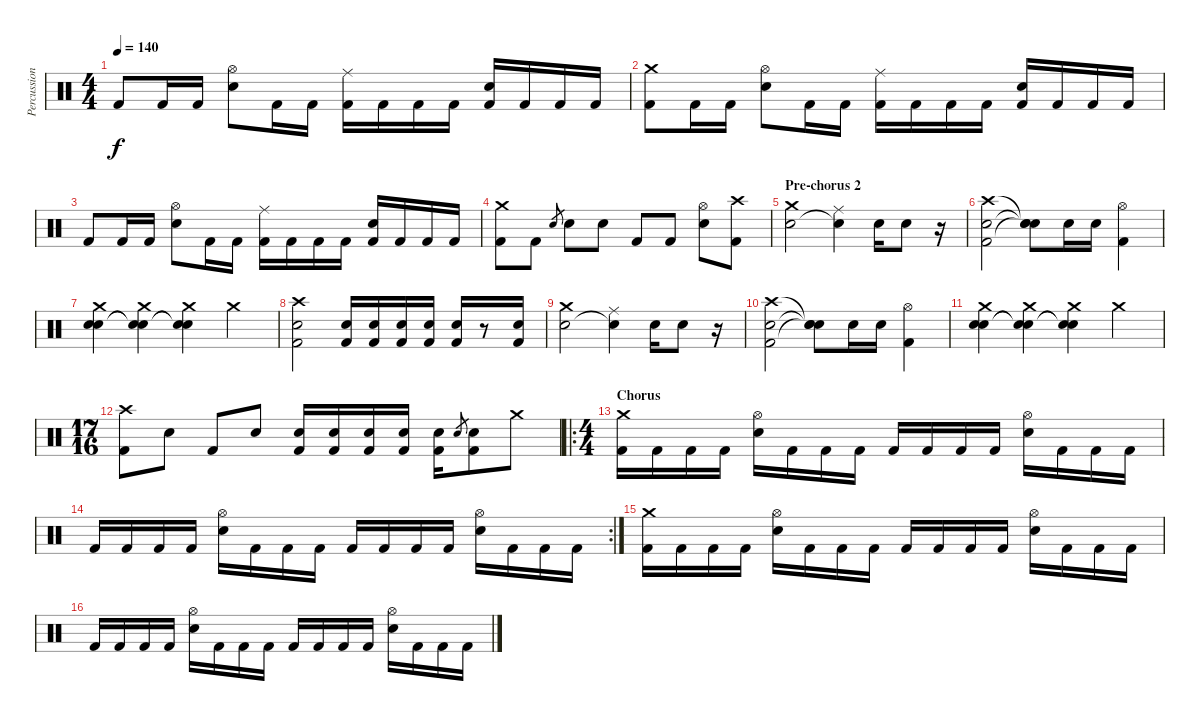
\track ("Percussion" "Percussion") {instrument percussion}
\staff {score}
\articulation defaults
\ts (4 4)
\tempo 140
\clef neutral
\ks c "Kick (hit) 2".8{dy f} "Kick (hit) 2".16 "Kick (hit) 2".16
("Hi-Hat (open)" "Electric Snare (hit)").8 "Kick (hit) 2".16 "Kick (hit) 2".16 ("Ride (middle)" "Kick (hit) 2").16 "Kick (hit) 2".16 "Kick (hit) 2".16 "Kick (hit) 2".16 ("Electric Snare (hit)" "Kick (hit) 2").16 "Kick (hit) 2".16 "Kick (hit) 2".16 "Kick (hit) 2".16 |
("Crash medium (hit)" "Kick (hit) 2").8 "Kick (hit) 2".16 "Kick (hit) 2".16 ("Hi-Hat (open)" "Electric Snare (hit)").8 "Kick (hit) 2".16 "Kick (hit) 2".16 ("Ride (middle)" "Kick (hit) 2").16 "Kick (hit) 2".16 "Kick (hit) 2".16 "Kick (hit) 2".16 ("Electric Snare (hit)" "Kick (hit) 2").16 "Kick (hit) 2".16 "Kick (hit) 2".16 "Kick (hit) 2".16 |
"Kick (hit) 2".8 "Kick (hit) 2".16 "Kick (hit) 2".16 ("Hi-Hat (open)" "Electric Snare (hit)").8 "Kick (hit) 2".16 "Kick (hit) 2".16 ("Ride (middle)" "Kick (hit) 2").16 "Kick (hit) 2".16 "Kick (hit) 2".16 "Kick (hit) 2".16 ("Electric Snare (hit)" "Kick (hit) 2").16 "Kick (hit) 2".16 "Kick (hit) 2".16 "Kick (hit) 2".16 |
("Crash medium (hit)" "Kick (hit) 2").8 "Kick (hit) 2".8 "Electric Snare (hit)".8{gr} "Electric Snare (hit)".8 "Electric Snare (hit)".8 "Kick (hit) 2".8 "Kick (hit) 2".8 ("Hi-Hat (open)" "Electric Snare (hit)").8 ("Crash high (hit)" "Kick (hit) 2").8 |
\section ("" "Pre-chorus 2")
("Crash medium (hit)" "Electric Snare (hit)").2 ("Ride (middle)" "Snare (hit)"{t}).4 "Electric Snare (hit)".16 "Electric Snare (hit)".8 r.16 |
("Crash high (hit)" "Electric Snare (hit)" "Kick (hit) 2").2 ("Snare (hit)"{t} "Snare (hit)"{t} "Snare (hit)"{t}).8 "Electric Snare (hit)".16 "Electric Snare (hit)".16 ("Hi-Hat (open)" "Kick (hit) 2").4 |
("Crash medium (hit)" "Electric Snare (hit)" "Snare (hit)").4 ("Crash medium (hit)" "Snare (hit)"{t} "Snare (hit)"{t}).4 ("Crash medium (hit)" "Snare (hit)"{t} "Snare (hit)"{t}).4 "Crash medium (hit)".4 |
("Crash high (hit)" "Electric Snare (hit)" "Kick (hit) 2").2 ("Electric Snare (hit)" "Kick (hit) 2").16 ("Electric Snare (hit)" "Kick (hit) 2").16 ("Electric Snare (hit)" "Kick (hit) 2").16 ("Electric Snare (hit)" "Kick (hit) 2").16 ("Electric Snare (hit)" "Kick (hit) 2").16 r.8 ("Electric Snare (hit)" "Kick (hit) 2").16 |
("Crash medium (hit)" "Electric Snare (hit)").2 ("Ride (middle)" "Snare (hit)"{t}).4 "Electric Snare (hit)".16 "Electric Snare (hit)".8 r.16 |
("Crash high (hit)" "Electric Snare (hit)" "Kick (hit) 2").2 ("Snare (hit)"{t} "Snare (hit)"{t} "Snare (hit)"{t}).8 "Electric Snare (hit)".16 "Electric Snare (hit)".16 ("Hi-Hat (open)" "Kick (hit) 2").4 |
("Crash medium (hit)" "Electric Snare (hit)" "Snare (hit)").4 ("Crash medium (hit)" "Snare (hit)"{t} "Snare (hit)"{t}).4 ("Crash medium (hit)" "Snare (hit)"{t} "Snare (hit)"{t}).4 "Crash medium (hit)".4 |
\ts (17 16)
("Crash high (hit)" "Kick (hit) 2").8 "Electric Snare (hit)".8 "Kick (hit) 2".8 "Electric Snare (hit)".8 ("Electric Snare (hit)" "Kick (hit) 2").16 ("Electric Snare (hit)" "Kick (hit) 2").16 ("Electric Snare (hit)" "Kick (hit) 2").16 ("Electric Snare (hit)" "Kick (hit) 2").16 ("Electric Snare (hit)" "Kick (hit) 2").16 "Electric Snare (hit)".8{gr} ("Electric Snare (hit)" "Kick (hit) 2").8 "Crash medium (hit)".8 |
\ro
\ts (4 4)
\section ("" "Chorus")
("Crash medium (hit)" "Kick (hit) 2").16 "Kick (hit) 2".16 "Kick (hit) 2".16 "Kick (hit) 2".16 ("Hi-Hat (open)" "Electric Snare (hit)").16 "Kick (hit) 2".16 "Kick (hit) 2".16 "Kick (hit) 2".16 "Kick (hit) 2".16 "Kick (hit) 2".16 "Kick (hit) 2".16 "Kick (hit) 2".16 ("Hi-Hat (open)" "Electric Snare (hit)").16 "Kick (hit) 2".16 "Kick (hit) 2".16 "Kick (hit) 2".16 |
\rc 2 "Kick (hit) 2".16 "Kick (hit) 2".16 "Kick (hit) 2".16 "Kick (hit) 2".16
("Hi-Hat (open)" "Electric Snare (hit)").16 "Kick (hit) 2".16 "Kick (hit) 2".16 "Kick (hit) 2".16 "Kick (hit) 2".16 "Kick (hit) 2".16 "Kick (hit) 2".16 "Kick (hit) 2".16 ("Hi-Hat (open)" "Electric Snare (hit)").16 "Kick (hit) 2".16 "Kick (hit) 2".16 "Kick (hit) 2".16 |
("Crash medium (hit)" "Kick (hit) 2").16 "Kick (hit) 2".16 "Kick (hit) 2".16 "Kick (hit) 2".16 ("Hi-Hat (open)" "Electric Snare (hit)").16 "Kick (hit) 2".16 "Kick (hit) 2".16 "Kick (hit) 2".16 "Kick (hit) 2".16 "Kick (hit) 2".16 "Kick (hit) 2".16 "Kick (hit) 2".16 ("Hi-Hat (open)" "Electric Snare (hit)").16 "Kick (hit) 2".16 "Kick (hit) 2".16 "Kick (hit) 2".16 |
"Kick (hit) 2".16 "Kick (hit) 2".16 "Kick (hit) 2".16 "Kick (hit) 2".16 ("Hi-Hat (open)" "Electric Snare (hit)").16 "Kick (hit) 2".16 "Kick (hit) 2".16 "Kick (hit) 2".16 "Kick (hit) 2".16 "Kick (hit) 2".16 "Kick (hit) 2".16 "Kick (hit) 2".16 ("Hi-Hat (open)" "Electric Snare (hit)").16 "Kick (hit) 2".16 "Kick (hit) 2".16 "Kick (hit) 2".16
